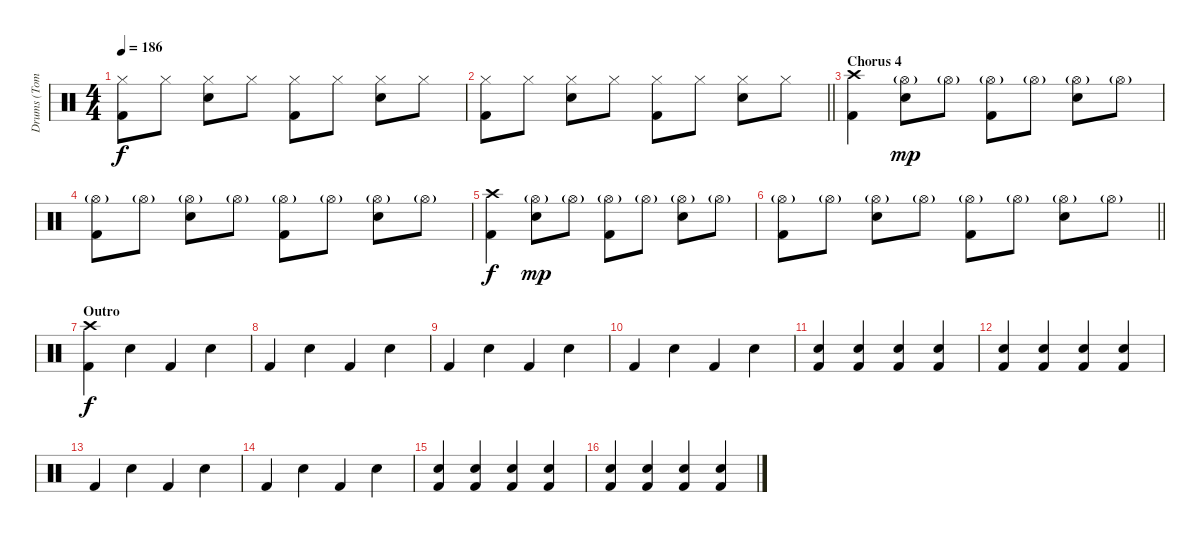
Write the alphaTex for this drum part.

\track ("Drums (Tommy)" "Drums (Tom") {instrument percussion}
\staff {score}
\articulation defaults
\ts (4 4)
\tempo 186
\clef neutral
\ks c
("Hi-Hat (closed)" "Kick (hit) 2").8{dy f} "Hi-Hat (closed)".8 ("Hi-Hat (closed)" "Electric Snare (hit)").8 "Hi-Hat (closed)".8 ("Hi-Hat (closed)" "Kick (hit) 2").8 "Hi-Hat (closed)".8 ("Hi-Hat (closed)" "Electric Snare (hit)").8 "Hi-Hat (closed)".8 |
\barLineRight lightlight
("Hi-Hat (closed)" "Kick (hit) 2").8 "Hi-Hat (closed)".8 ("Hi-Hat (closed)" "Electric Snare (hit)").8 "Hi-Hat (closed)".8 ("Hi-Hat (closed)" "Kick (hit) 2").8 "Hi-Hat (closed)".8 ("Hi-Hat (closed)" "Electric Snare (hit)").8 "Hi-Hat (closed)".8 |
\section ("" "Chorus 4")
("Crash high (hit)" "Kick (hit) 2").4 ("Hi-Hat (open)"{g} "Electric Snare (hit)").8{dy mp} "Hi-Hat (open)"{g}.8 ("Hi-Hat (open)"{g} "Kick (hit) 2").8 "Hi-Hat (open)"{g}.8 ("Hi-Hat (open)"{g} "Electric Snare (hit)").8 "Hi-Hat (open)"{g}.8 |
("Hi-Hat (open)"{g} "Kick (hit) 2").8 "Hi-Hat (open)"{g}.8 ("Hi-Hat (open)"{g} "Electric Snare (hit)").8 "Hi-Hat (open)"{g}.8 ("Hi-Hat (open)"{g} "Kick (hit) 2").8 "Hi-Hat (open)"{g}.8 ("Hi-Hat (open)"{g} "Electric Snare (hit)").8 "Hi-Hat (open)"{g}.8 |
("Crash high (hit)" "Kick (hit) 2").4{dy f} ("Hi-Hat (open)"{g} "Electric Snare (hit)").8{dy mp} "Hi-Hat (open)"{g}.8 ("Hi-Hat (open)"{g} "Kick (hit) 2").8 "Hi-Hat (open)"{g}.8 ("Hi-Hat (open)"{g} "Electric Snare (hit)").8 "Hi-Hat (open)"{g}.8 |
\barLineRight lightlight
("Hi-Hat (open)"{g} "Kick (hit) 2").8 "Hi-Hat (open)"{g}.8 ("Hi-Hat (open)"{g} "Electric Snare (hit)").8 "Hi-Hat (open)"{g}.8 ("Hi-Hat (open)"{g} "Kick (hit) 2").8 "Hi-Hat (open)"{g}.8 ("Hi-Hat (open)"{g} "Electric Snare (hit)").8 "Hi-Hat (open)"{g}.8 |
\section ("" "Outro")
("Crash high (hit)" "Kick (hit) 2").4{dy f} "Electric Snare (hit)".4 "Kick (hit) 2".4 "Electric Snare (hit)".4 |
"Kick (hit) 2".4 "Electric Snare (hit)".4 "Kick (hit) 2".4 "Electric Snare (hit)".4 |
"Kick (hit) 2".4 "Electric Snare (hit)".4 "Kick (hit) 2".4 "Electric Snare (hit)".4 |
"Kick (hit) 2".4 "Electric Snare (hit)".4 "Kick (hit) 2".4 "Electric Snare (hit)".4 |
("Electric Snare (hit)" "Kick (hit) 2").4 ("Electric Snare (hit)" "Kick (hit) 2").4 ("Electric Snare (hit)" "Kick (hit) 2").4 ("Electric Snare (hit)" "Kick (hit) 2").4 |
("Electric Snare (hit)" "Kick (hit) 2").4 ("Electric Snare (hit)" "Kick (hit) 2").4 ("Electric Snare (hit)" "Kick (hit) 2").4 ("Electric Snare (hit)" "Kick (hit) 2").4 |
"Kick (hit) 2".4 "Electric Snare (hit)".4 "Kick (hit) 2".4 "Electric Snare (hit)".4 |
"Kick (hit) 2".4 "Electric Snare (hit)".4 "Kick (hit) 2".4 "Electric Snare (hit)".4 |
("Electric Snare (hit)" "Kick (hit) 2").4 ("Electric Snare (hit)" "Kick (hit) 2").4 ("Electric Snare (hit)" "Kick (hit) 2").4 ("Electric Snare (hit)" "Kick (hit) 2").4 |
("Electric Snare (hit)" "Kick (hit) 2").4 ("Electric Snare (hit)" "Kick (hit) 2").4 ("Electric Snare (hit)" "Kick (hit) 2").4 ("Electric Snare (hit)" "Kick (hit) 2").4
